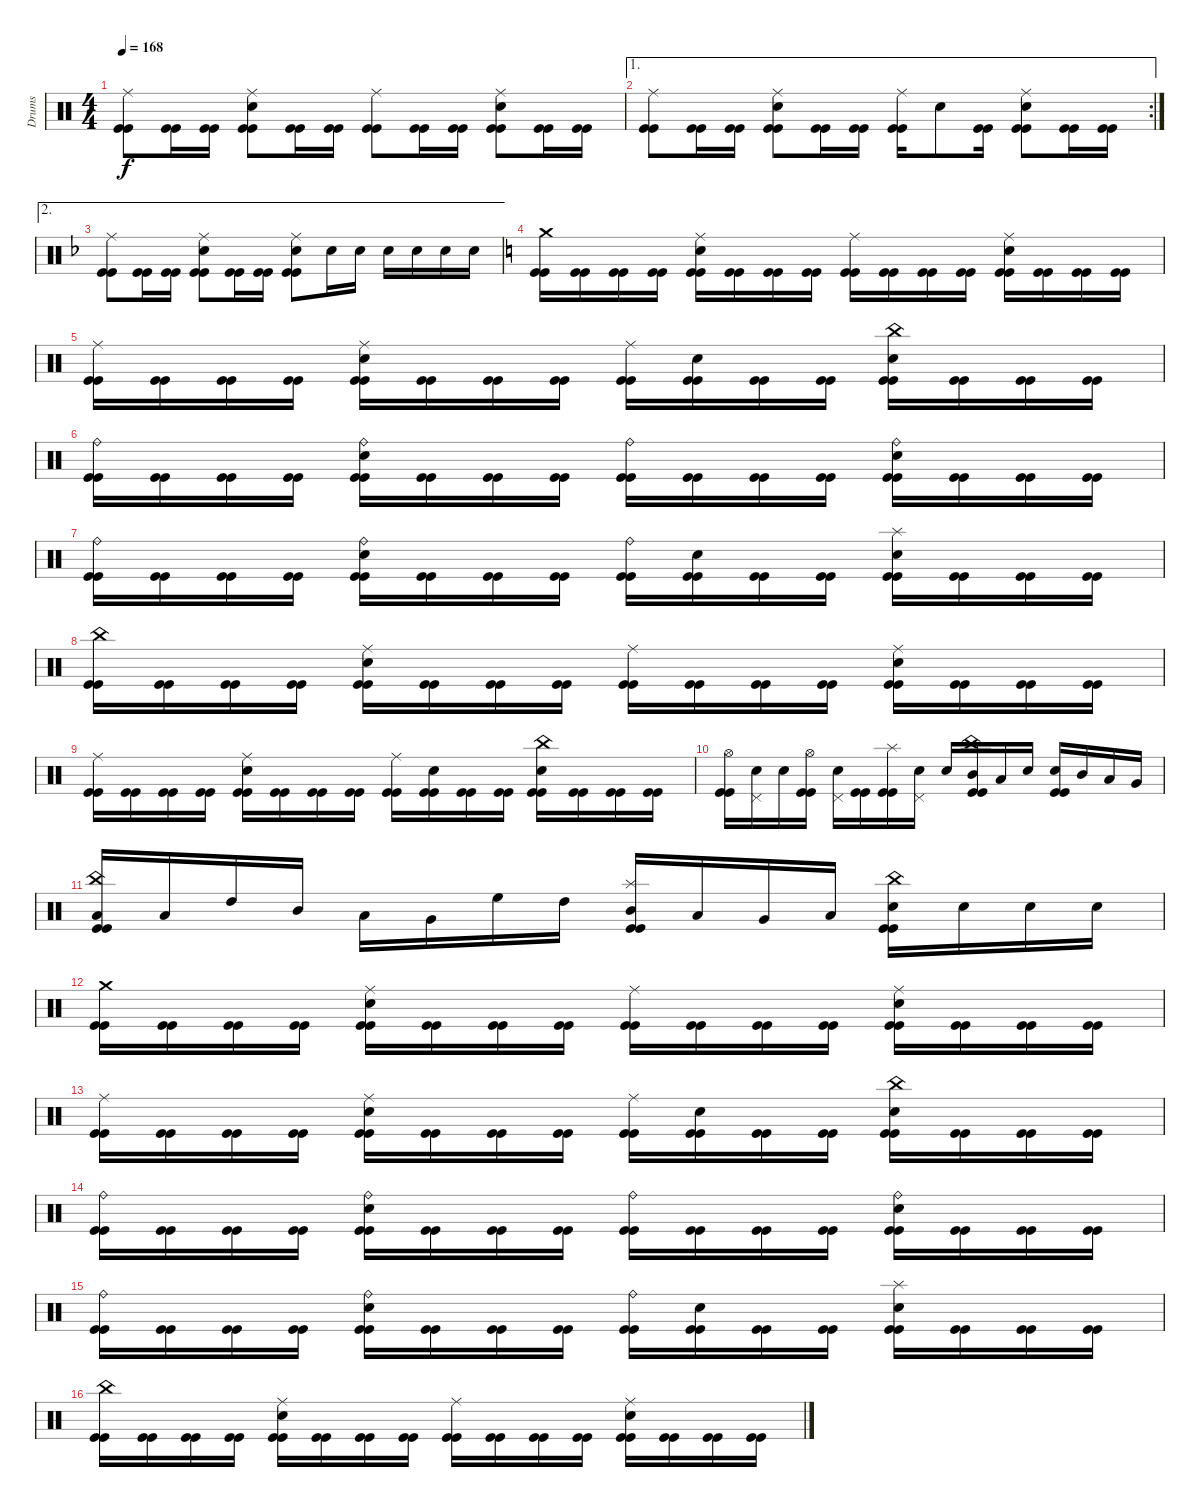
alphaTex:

\track ("Drums" "Drums") {instrument percussion}
\staff {score}
\articulation defaults
\ts (4 4)
\tempo 168
\clef neutral
\ks c
("Ride (middle)" "Kick (hit)" "Kick (hit)").8{dy f} ("Kick (hit)" "Kick (hit)").16 ("Kick (hit)" "Kick (hit)").16 ("Ride (middle)" "Electric Snare (hit)" "Kick (hit)" "Kick (hit)").8 ("Kick (hit)" "Kick (hit)").16 ("Kick (hit)" "Kick (hit)").16 ("Ride (middle)" "Kick (hit)" "Kick (hit)").8 ("Kick (hit)" "Kick (hit)").16 ("Kick (hit)" "Kick (hit)").16 ("Ride (middle)" "Electric Snare (hit)" "Kick (hit)" "Kick (hit)").8 ("Kick (hit)" "Kick (hit)").16 ("Kick (hit)" "Kick (hit)").16 |
\ae 1
\rc 2
("Ride (middle)" "Kick (hit)" "Kick (hit)").8 ("Kick (hit)" "Kick (hit)").16 ("Kick (hit)" "Kick (hit)").16 ("Ride (middle)" "Electric Snare (hit)" "Kick (hit)" "Kick (hit)").8 ("Kick (hit)" "Kick (hit)").16 ("Kick (hit)" "Kick (hit)").16 ("Ride (middle)" "Kick (hit)" "Kick (hit)").16 "Electric Snare (hit)".8 ("Kick (hit)" "Kick (hit)").16 ("Ride (middle)" "Electric Snare (hit)" "Kick (hit)" "Kick (hit)").8 ("Kick (hit)" "Kick (hit)").16 ("Kick (hit)" "Kick (hit)").16 |
\ae 2
\ks f
("Ride (middle)" "Kick (hit)" "Kick (hit)").8 ("Kick (hit)" "Kick (hit)").16 ("Kick (hit)" "Kick (hit)").16 ("Ride (middle)" "Electric Snare (hit)" "Kick (hit)" "Kick (hit)").8 ("Kick (hit)" "Kick (hit)").16 ("Kick (hit)" "Kick (hit)").16 ("Ride (middle)" "Electric Snare (hit)" "Kick (hit)" "Kick (hit)").8 "Electric Snare (hit)".16 "Electric Snare (hit)".16 "Electric Snare (hit)".16 "Electric Snare (hit)".16 "Electric Snare (hit)".16 "Electric Snare (hit)".16 |
\ks c
("Crash medium (hit)" "Kick (hit)" "Kick (hit)").16 ("Kick (hit)" "Kick (hit)").16 ("Kick (hit)" "Kick (hit)").16 ("Kick (hit)" "Kick (hit)").16 ("Ride (middle)" "Electric Snare (hit)" "Kick (hit)" "Kick (hit)").16 ("Kick (hit)" "Kick (hit)").16 ("Kick (hit)" "Kick (hit)").16 ("Kick (hit)" "Kick (hit)").16 ("Ride (middle)" "Kick (hit)" "Kick (hit)").16 ("Kick (hit)" "Kick (hit)").16 ("Kick (hit)" "Kick (hit)").16 ("Kick (hit)" "Kick (hit)").16 ("Ride (middle)" "Electric Snare (hit)" "Kick (hit)" "Kick (hit)").16 ("Kick (hit)" "Kick (hit)").16 ("Kick (hit)" "Kick (hit)").16 ("Kick (hit)" "Kick (hit)").16 |
("Ride (middle)" "Kick (hit)" "Kick (hit)").16 ("Kick (hit)" "Kick (hit)").16 ("Kick (hit)" "Kick (hit)").16 ("Kick (hit)" "Kick (hit)").16 ("Ride (middle)" "Electric Snare (hit)" "Kick (hit)" "Kick (hit)").16 ("Kick (hit)" "Kick (hit)").16 ("Kick (hit)" "Kick (hit)").16 ("Kick (hit)" "Kick (hit)").16 ("Ride (middle)" "Kick (hit)" "Kick (hit)").16 ("Electric Snare (hit)" "Kick (hit)" "Kick (hit)").16 ("Kick (hit)" "Kick (hit)").16 ("Kick (hit)" "Kick (hit)").16 ("China (hit)" "Electric Snare (hit)" "Kick (hit)" "Kick (hit)").16 ("Kick (hit)" "Kick (hit)").16 ("Kick (hit)" "Kick (hit)").16 ("Kick (hit)" "Kick (hit)").16 |
("Ride (bell)" "Kick (hit)" "Kick (hit)").16 ("Kick (hit)" "Kick (hit)").16 ("Kick (hit)" "Kick (hit)").16 ("Kick (hit)" "Kick (hit)").16 ("Ride (bell)" "Electric Snare (hit)" "Kick (hit)" "Kick (hit)").16 ("Kick (hit)" "Kick (hit)").16 ("Kick (hit)" "Kick (hit)").16 ("Kick (hit)" "Kick (hit)").16 ("Ride (bell)" "Kick (hit)" "Kick (hit)").16 ("Kick (hit)" "Kick (hit)").16 ("Kick (hit)" "Kick (hit)").16 ("Kick (hit)" "Kick (hit)").16 ("Ride (bell)" "Electric Snare (hit)" "Kick (hit)" "Kick (hit)").16 ("Kick (hit)" "Kick (hit)").16 ("Kick (hit)" "Kick (hit)").16 ("Kick (hit)" "Kick (hit)").16 |
("Ride (bell)" "Kick (hit)" "Kick (hit)").16 ("Kick (hit)" "Kick (hit)").16 ("Kick (hit)" "Kick (hit)").16 ("Kick (hit)" "Kick (hit)").16 ("Ride (bell)" "Electric Snare (hit)" "Kick (hit)" "Kick (hit)").16 ("Kick (hit)" "Kick (hit)").16 ("Kick (hit)" "Kick (hit)").16 ("Kick (hit)" "Kick (hit)").16 ("Ride (bell)" "Kick (hit)" "Kick (hit)").16 ("Electric Snare (hit)" "Kick (hit)" "Kick (hit)").16 ("Kick (hit)" "Kick (hit)").16 ("Kick (hit)" "Kick (hit)").16 ("Splash (hit)" "Electric Snare (hit)" "Kick (hit)" "Kick (hit)").16 ("Kick (hit)" "Kick (hit)").16 ("Kick (hit)" "Kick (hit)").16 ("Kick (hit)" "Kick (hit)").16 |
("China (hit)" "Kick (hit)" "Kick (hit)").16 ("Kick (hit)" "Kick (hit)").16 ("Kick (hit)" "Kick (hit)").16 ("Kick (hit)" "Kick (hit)").16 ("Ride (middle)" "Electric Snare (hit)" "Kick (hit)" "Kick (hit)").16 ("Kick (hit)" "Kick (hit)").16 ("Kick (hit)" "Kick (hit)").16 ("Kick (hit)" "Kick (hit)").16 ("Ride (middle)" "Kick (hit)" "Kick (hit)").16 ("Kick (hit)" "Kick (hit)").16 ("Kick (hit)" "Kick (hit)").16 ("Kick (hit)" "Kick (hit)").16 ("Ride (middle)" "Electric Snare (hit)" "Kick (hit)" "Kick (hit)").16 ("Kick (hit)" "Kick (hit)").16 ("Kick (hit)" "Kick (hit)").16 ("Kick (hit)" "Kick (hit)").16 |
("Ride (middle)" "Kick (hit)" "Kick (hit)").16 ("Kick (hit)" "Kick (hit)").16 ("Kick (hit)" "Kick (hit)").16 ("Kick (hit)" "Kick (hit)").16 ("Ride (middle)" "Electric Snare (hit)" "Kick (hit)" "Kick (hit)").16 ("Kick (hit)" "Kick (hit)").16 ("Kick (hit)" "Kick (hit)").16 ("Kick (hit)" "Kick (hit)").16 ("Ride (middle)" "Kick (hit)" "Kick (hit)").16 ("Electric Snare (hit)" "Kick (hit)" "Kick (hit)").16 ("Kick (hit)" "Kick (hit)").16 ("Kick (hit)" "Kick (hit)").16 ("China (hit)" "Electric Snare (hit)" "Kick (hit)" "Kick (hit)").16 ("Kick (hit)" "Kick (hit)").16 ("Kick (hit)" "Kick (hit)").16 ("Kick (hit)" "Kick (hit)").16 |
("Hi-Hat (open)" "Kick (hit)" "Kick (hit)").16 ("Pedal Hi-Hat (hit)" "Electric Snare (hit)").16 "Electric Snare (hit)".16 ("Hi-Hat (open)" "Kick (hit)" "Kick (hit)").16 ("Pedal Hi-Hat (hit)" "Electric Snare (hit)").16 ("Kick (hit)" "Kick (hit)").16 ("Splash (hit)" "Kick (hit)" "Kick (hit)").16 ("Pedal Hi-Hat (hit)" "Electric Snare (hit)").16 "Electric Snare (hit)".16 ("China (hit)" "Mid Tom (hit)" "Kick (hit)" "Kick (hit)").16 "Low Tom (hit)".16 "Electric Snare (hit)".16 ("Electric Snare (hit)" "Kick (hit)" "Kick (hit)").16 "Mid Tom (hit)".16 "Low Tom (hit)".16 "Very Low Tom (hit)".16 |
("China (hit)" "Low Tom (hit)" "Kick (hit)" "Kick (hit)").16 "Low Tom (hit)".16 "High Tom (hit)".16 "Mid Tom (hit)".16 "Low Tom (hit)".16 "Very Low Tom (hit)".16 "High Floor Tom (hit)".16 "High Tom (hit)".16 ("Splash (hit)" "Mid Tom (hit)" "Kick (hit)" "Kick (hit)").16 "Low Tom (hit)".16 "Very Low Tom (hit)".16 "Low Floor Tom (hit)".16 ("China (hit)" "Electric Snare (hit)" "Kick (hit)" "Kick (hit)").16 "Electric Snare (hit)".16 "Electric Snare (hit)".16 "Electric Snare (hit)".16 |
("Crash medium (hit)" "Kick (hit)" "Kick (hit)").16 ("Kick (hit)" "Kick (hit)").16 ("Kick (hit)" "Kick (hit)").16 ("Kick (hit)" "Kick (hit)").16 ("Ride (middle)" "Electric Snare (hit)" "Kick (hit)" "Kick (hit)").16 ("Kick (hit)" "Kick (hit)").16 ("Kick (hit)" "Kick (hit)").16 ("Kick (hit)" "Kick (hit)").16 ("Ride (middle)" "Kick (hit)" "Kick (hit)").16 ("Kick (hit)" "Kick (hit)").16 ("Kick (hit)" "Kick (hit)").16 ("Kick (hit)" "Kick (hit)").16 ("Ride (middle)" "Electric Snare (hit)" "Kick (hit)" "Kick (hit)").16 ("Kick (hit)" "Kick (hit)").16 ("Kick (hit)" "Kick (hit)").16 ("Kick (hit)" "Kick (hit)").16 |
("Ride (middle)" "Kick (hit)" "Kick (hit)").16 ("Kick (hit)" "Kick (hit)").16 ("Kick (hit)" "Kick (hit)").16 ("Kick (hit)" "Kick (hit)").16 ("Ride (middle)" "Electric Snare (hit)" "Kick (hit)" "Kick (hit)").16 ("Kick (hit)" "Kick (hit)").16 ("Kick (hit)" "Kick (hit)").16 ("Kick (hit)" "Kick (hit)").16 ("Ride (middle)" "Kick (hit)" "Kick (hit)").16 ("Electric Snare (hit)" "Kick (hit)" "Kick (hit)").16 ("Kick (hit)" "Kick (hit)").16 ("Kick (hit)" "Kick (hit)").16 ("China (hit)" "Electric Snare (hit)" "Kick (hit)" "Kick (hit)").16 ("Kick (hit)" "Kick (hit)").16 ("Kick (hit)" "Kick (hit)").16 ("Kick (hit)" "Kick (hit)").16 |
("Ride (bell)" "Kick (hit)" "Kick (hit)").16 ("Kick (hit)" "Kick (hit)").16 ("Kick (hit)" "Kick (hit)").16 ("Kick (hit)" "Kick (hit)").16 ("Ride (bell)" "Electric Snare (hit)" "Kick (hit)" "Kick (hit)").16 ("Kick (hit)" "Kick (hit)").16 ("Kick (hit)" "Kick (hit)").16 ("Kick (hit)" "Kick (hit)").16 ("Ride (bell)" "Kick (hit)" "Kick (hit)").16 ("Kick (hit)" "Kick (hit)").16 ("Kick (hit)" "Kick (hit)").16 ("Kick (hit)" "Kick (hit)").16 ("Ride (bell)" "Electric Snare (hit)" "Kick (hit)" "Kick (hit)").16 ("Kick (hit)" "Kick (hit)").16 ("Kick (hit)" "Kick (hit)").16 ("Kick (hit)" "Kick (hit)").16 |
("Ride (bell)" "Kick (hit)" "Kick (hit)").16 ("Kick (hit)" "Kick (hit)").16 ("Kick (hit)" "Kick (hit)").16 ("Kick (hit)" "Kick (hit)").16 ("Ride (bell)" "Electric Snare (hit)" "Kick (hit)" "Kick (hit)").16 ("Kick (hit)" "Kick (hit)").16 ("Kick (hit)" "Kick (hit)").16 ("Kick (hit)" "Kick (hit)").16 ("Ride (bell)" "Kick (hit)" "Kick (hit)").16 ("Electric Snare (hit)" "Kick (hit)" "Kick (hit)").16 ("Kick (hit)" "Kick (hit)").16 ("Kick (hit)" "Kick (hit)").16 ("Splash (hit)" "Electric Snare (hit)" "Kick (hit)" "Kick (hit)").16 ("Kick (hit)" "Kick (hit)").16 ("Kick (hit)" "Kick (hit)").16 ("Kick (hit)" "Kick (hit)").16 |
("China (hit)" "Kick (hit)" "Kick (hit)").16 ("Kick (hit)" "Kick (hit)").16 ("Kick (hit)" "Kick (hit)").16 ("Kick (hit)" "Kick (hit)").16 ("Ride (middle)" "Electric Snare (hit)" "Kick (hit)" "Kick (hit)").16 ("Kick (hit)" "Kick (hit)").16 ("Kick (hit)" "Kick (hit)").16 ("Kick (hit)" "Kick (hit)").16 ("Ride (middle)" "Kick (hit)" "Kick (hit)").16 ("Kick (hit)" "Kick (hit)").16 ("Kick (hit)" "Kick (hit)").16 ("Kick (hit)" "Kick (hit)").16 ("Ride (middle)" "Electric Snare (hit)" "Kick (hit)" "Kick (hit)").16 ("Kick (hit)" "Kick (hit)").16 ("Kick (hit)" "Kick (hit)").16 ("Kick (hit)" "Kick (hit)").16
